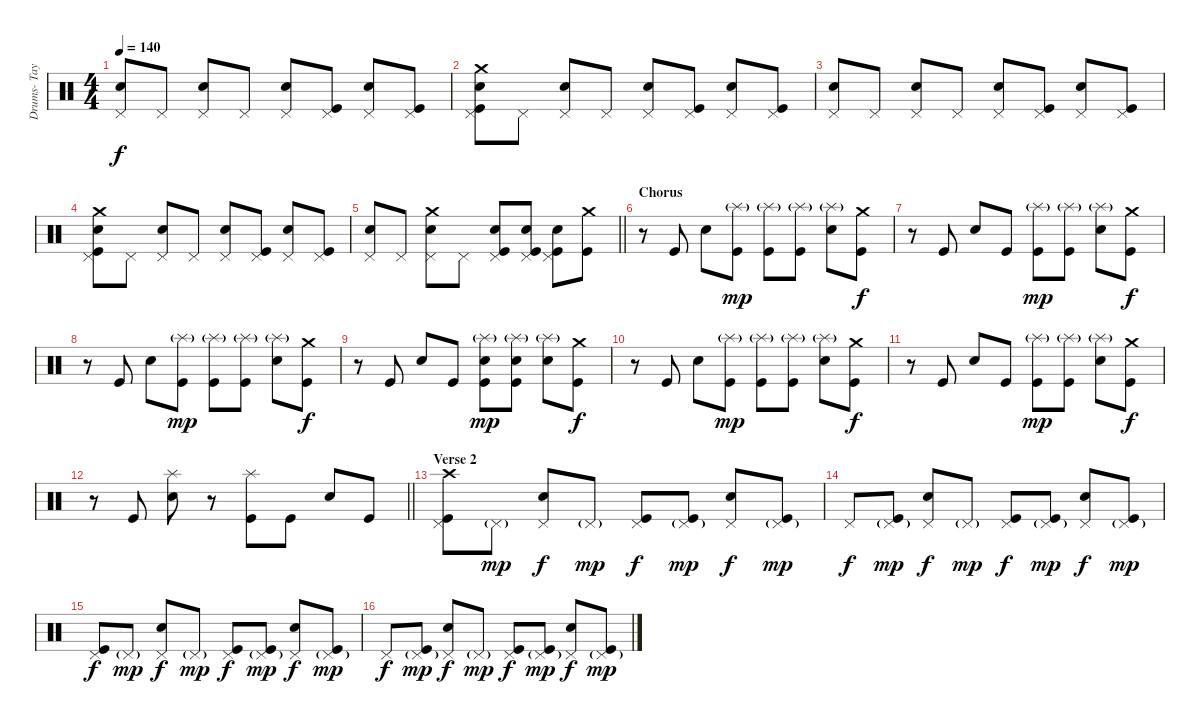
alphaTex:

\track ("Drums- Taylor Hawkins" "Drums- Tay") {instrument percussion}
\staff {score}
\articulation defaults
\ts (4 4)
\tempo 140
\clef neutral
\ks c
("Snare (hit) 2" "Pedal Hi-Hat (hit)").8{dy f} "Pedal Hi-Hat (hit)".8 ("Snare (hit) 2" "Pedal Hi-Hat (hit)").8 "Pedal Hi-Hat (hit)".8 ("Snare (hit) 2" "Pedal Hi-Hat (hit)").8 ("Pedal Hi-Hat (hit)" "Kick (hit)").8 ("Snare (hit) 2" "Pedal Hi-Hat (hit)").8 ("Pedal Hi-Hat (hit)" "Kick (hit)").8 |
("Kick (hit)" "Crash medium (hit)" "Snare (hit) 2" "Pedal Hi-Hat (hit)").8 "Pedal Hi-Hat (hit)".8 ("Snare (hit) 2" "Pedal Hi-Hat (hit)").8 "Pedal Hi-Hat (hit)".8 ("Snare (hit) 2" "Pedal Hi-Hat (hit)").8 ("Pedal Hi-Hat (hit)" "Kick (hit)").8 ("Snare (hit) 2" "Pedal Hi-Hat (hit)").8 ("Pedal Hi-Hat (hit)" "Kick (hit)").8 |
("Snare (hit) 2" "Pedal Hi-Hat (hit)").8 "Pedal Hi-Hat (hit)".8 ("Snare (hit) 2" "Pedal Hi-Hat (hit)").8 "Pedal Hi-Hat (hit)".8 ("Snare (hit) 2" "Pedal Hi-Hat (hit)").8 ("Pedal Hi-Hat (hit)" "Kick (hit)").8 ("Snare (hit) 2" "Pedal Hi-Hat (hit)").8 ("Pedal Hi-Hat (hit)" "Kick (hit)").8 |
("Kick (hit)" "Crash medium (hit)" "Snare (hit) 2" "Pedal Hi-Hat (hit)").8 "Pedal Hi-Hat (hit)".8 ("Snare (hit) 2" "Pedal Hi-Hat (hit)").8 "Pedal Hi-Hat (hit)".8 ("Snare (hit) 2" "Pedal Hi-Hat (hit)").8 ("Pedal Hi-Hat (hit)" "Kick (hit)").8 ("Snare (hit) 2" "Pedal Hi-Hat (hit)").8 ("Pedal Hi-Hat (hit)" "Kick (hit)").8 |
\barLineRight lightlight
("Snare (hit) 2" "Pedal Hi-Hat (hit)").8 "Pedal Hi-Hat (hit)".8 ("Crash medium (hit)" "Snare (hit) 2" "Pedal Hi-Hat (hit)").8 "Pedal Hi-Hat (hit)".8 ("Pedal Hi-Hat (hit)" "Snare (hit) 2" "Kick (hit)").8 ("Pedal Hi-Hat (hit)" "Snare (hit) 2" "Kick (hit)").8 ("Pedal Hi-Hat (hit)" "Snare (hit) 2" "Kick (hit)").8 ("Crash medium (hit)" "Kick (hit)").8 |
\section ("" "Chorus")
r.8 "Kick (hit)".8 "Snare (hit) 2".8 ("Splash (hit)"{g} "Kick (hit)").8{dy mp} ("Splash (hit)"{g} "Kick (hit)").8 ("Splash (hit)"{g} "Kick (hit)").8 ("Splash (hit)"{g} "Snare (hit) 2").8 ("Crash medium (hit)" "Kick (hit)").8{dy f} |
r.8 "Kick (hit)".8 "Snare (hit) 2".8 "Kick (hit)".8 ("Splash (hit)"{g} "Kick (hit)").8{dy mp} ("Splash (hit)"{g} "Kick (hit)").8 ("Splash (hit)"{g} "Snare (hit) 2").8 ("Crash medium (hit)" "Kick (hit)").8{dy f} |
r.8 "Kick (hit)".8 "Snare (hit) 2".8 ("Splash (hit)"{g} "Kick (hit)").8{dy mp} ("Splash (hit)"{g} "Kick (hit)").8 ("Splash (hit)"{g} "Kick (hit)").8 ("Splash (hit)"{g} "Snare (hit) 2").8 ("Crash medium (hit)" "Kick (hit)").8{dy f} |
r.8 "Kick (hit)".8 "Snare (hit) 2".8 "Kick (hit)".8 ("Splash (hit)"{g} "Snare (hit) 2" "Kick (hit)").8{dy mp} ("Splash (hit)"{g} "Snare (hit) 2" "Kick (hit)").8 ("Splash (hit)"{g} "Snare (hit) 2").8 ("Crash medium (hit)" "Kick (hit)").8{dy f} |
r.8 "Kick (hit)".8 "Snare (hit) 2".8 ("Splash (hit)"{g} "Kick (hit)").8{dy mp} ("Splash (hit)"{g} "Kick (hit)").8 ("Splash (hit)"{g} "Kick (hit)").8 ("Splash (hit)"{g} "Snare (hit) 2").8 ("Crash medium (hit)" "Kick (hit)").8{dy f} |
r.8 "Kick (hit)".8 "Snare (hit) 2".8 "Kick (hit)".8 ("Splash (hit)"{g} "Kick (hit)").8{dy mp} ("Splash (hit)"{g} "Kick (hit)").8 ("Splash (hit)"{g} "Snare (hit) 2").8 ("Crash medium (hit)" "Kick (hit)").8{dy f} |
\barLineRight lightlight
r.8 "Kick (hit)".8 ("Splash (hit)" "Snare (hit) 2").8 r.8 ("Splash (hit)" "Kick (hit)").8 "Kick (hit)".8 "Snare (hit) 2".8 "Kick (hit)".8 |
\section ("" "Verse 2")
("Crash high (hit)" "Pedal Hi-Hat (hit)" "Kick (hit)").8 "Pedal Hi-Hat (hit)"{g}.8{dy mp} ("Pedal Hi-Hat (hit)" "Snare (hit) 2").8{dy f} "Pedal Hi-Hat (hit)"{g}.8{dy mp} ("Pedal Hi-Hat (hit)" "Kick (hit)").8{dy f} ("Pedal Hi-Hat (hit)"{g} "Kick (hit)").8{dy mp} ("Pedal Hi-Hat (hit)" "Snare (hit) 2").8{dy f} ("Pedal Hi-Hat (hit)"{g} "Kick (hit)").8{dy mp} |
"Pedal Hi-Hat (hit)".8{dy f} ("Pedal Hi-Hat (hit)"{g} "Kick (hit)").8{dy mp} ("Pedal Hi-Hat (hit)" "Snare (hit) 2").8{dy f} "Pedal Hi-Hat (hit)"{g}.8{dy mp} ("Pedal Hi-Hat (hit)" "Kick (hit)").8{dy f} ("Pedal Hi-Hat (hit)"{g} "Kick (hit)").8{dy mp} ("Pedal Hi-Hat (hit)" "Snare (hit) 2").8{dy f} ("Pedal Hi-Hat (hit)"{g} "Kick (hit)").8{dy mp} |
("Pedal Hi-Hat (hit)" "Kick (hit)").8{dy f} "Pedal Hi-Hat (hit)"{g}.8{dy mp} ("Pedal Hi-Hat (hit)" "Snare (hit) 2").8{dy f} "Pedal Hi-Hat (hit)"{g}.8{dy mp} ("Pedal Hi-Hat (hit)" "Kick (hit)").8{dy f} ("Pedal Hi-Hat (hit)"{g} "Kick (hit)").8{dy mp} ("Pedal Hi-Hat (hit)" "Snare (hit) 2").8{dy f} ("Pedal Hi-Hat (hit)"{g} "Kick (hit)").8{dy mp} |
"Pedal Hi-Hat (hit)".8{dy f} ("Pedal Hi-Hat (hit)"{g} "Kick (hit)").8{dy mp} ("Pedal Hi-Hat (hit)" "Snare (hit) 2").8{dy f} "Pedal Hi-Hat (hit)"{g}.8{dy mp} ("Pedal Hi-Hat (hit)" "Kick (hit)").8{dy f} ("Pedal Hi-Hat (hit)"{g} "Kick (hit)").8{dy mp} ("Pedal Hi-Hat (hit)" "Snare (hit) 2").8{dy f} ("Pedal Hi-Hat (hit)"{g} "Kick (hit)").8{dy mp}
